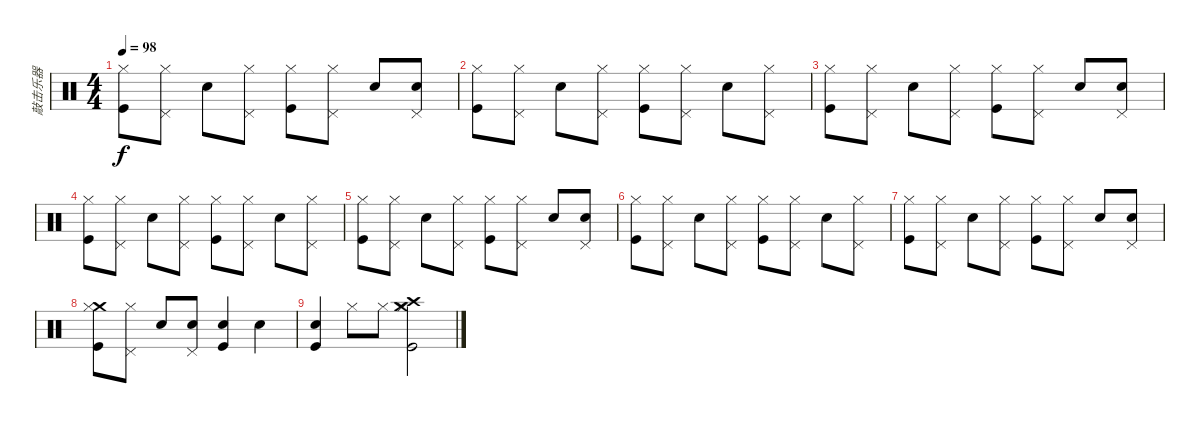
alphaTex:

\track ("敲击乐器" "敲击乐器") {instrument percussion}
\staff {score}
\articulation defaults
\ts (4 4)
\tempo 98
\clef neutral
\ks c
("Hi-Hat (closed)" "Kick (hit)").8{dy f} ("Pedal Hi-Hat (hit)" "Hi-Hat (closed)").8 "Snare (hit) 2".8 ("Pedal Hi-Hat (hit)" "Hi-Hat (closed)").8 ("Hi-Hat (closed)" "Kick (hit)").8 ("Pedal Hi-Hat (hit)" "Hi-Hat (closed)").8 "Snare (hit) 2".8 ("Pedal Hi-Hat (hit)" "Snare (hit) 2").8 |
("Hi-Hat (closed)" "Kick (hit)").8 ("Pedal Hi-Hat (hit)" "Hi-Hat (closed)").8 "Snare (hit) 2".8 ("Pedal Hi-Hat (hit)" "Hi-Hat (closed)").8 ("Hi-Hat (closed)" "Kick (hit)").8 ("Pedal Hi-Hat (hit)" "Hi-Hat (closed)").8 "Snare (hit) 2".8 ("Pedal Hi-Hat (hit)" "Hi-Hat (closed)").8 |
("Hi-Hat (closed)" "Kick (hit)").8 ("Pedal Hi-Hat (hit)" "Hi-Hat (closed)").8 "Snare (hit) 2".8 ("Pedal Hi-Hat (hit)" "Hi-Hat (closed)").8 ("Hi-Hat (closed)" "Kick (hit)").8 ("Pedal Hi-Hat (hit)" "Hi-Hat (closed)").8 "Snare (hit) 2".8 ("Pedal Hi-Hat (hit)" "Snare (hit) 2").8 |
("Hi-Hat (closed)" "Kick (hit)").8 ("Pedal Hi-Hat (hit)" "Hi-Hat (closed)").8 "Snare (hit) 2".8 ("Pedal Hi-Hat (hit)" "Hi-Hat (closed)").8 ("Hi-Hat (closed)" "Kick (hit)").8 ("Pedal Hi-Hat (hit)" "Hi-Hat (closed)").8 "Snare (hit) 2".8 ("Pedal Hi-Hat (hit)" "Hi-Hat (closed)").8 |
("Hi-Hat (closed)" "Kick (hit)").8 ("Pedal Hi-Hat (hit)" "Hi-Hat (closed)").8 "Snare (hit) 2".8 ("Pedal Hi-Hat (hit)" "Hi-Hat (closed)").8 ("Hi-Hat (closed)" "Kick (hit)").8 ("Pedal Hi-Hat (hit)" "Hi-Hat (closed)").8 "Snare (hit) 2".8 ("Pedal Hi-Hat (hit)" "Snare (hit) 2").8 |
("Hi-Hat (closed)" "Kick (hit)").8 ("Pedal Hi-Hat (hit)" "Hi-Hat (closed)").8 "Snare (hit) 2".8 ("Pedal Hi-Hat (hit)" "Hi-Hat (closed)").8 ("Hi-Hat (closed)" "Kick (hit)").8 ("Pedal Hi-Hat (hit)" "Hi-Hat (closed)").8 "Snare (hit) 2".8 ("Pedal Hi-Hat (hit)" "Hi-Hat (closed)").8 |
("Hi-Hat (closed)" "Kick (hit)").8 ("Pedal Hi-Hat (hit)" "Hi-Hat (closed)").8 "Snare (hit) 2".8 ("Pedal Hi-Hat (hit)" "Hi-Hat (closed)").8 ("Hi-Hat (closed)" "Kick (hit)").8 ("Pedal Hi-Hat (hit)" "Hi-Hat (closed)").8 "Snare (hit) 2".8 ("Pedal Hi-Hat (hit)" "Snare (hit) 2").8 |
("Crash medium (hit)" "Hi-Hat (closed)" "Kick (hit)").8 ("Pedal Hi-Hat (hit)" "Hi-Hat (closed)").8 "Snare (hit) 2".8 ("Pedal Hi-Hat (hit)" "Snare (hit) 2").8 ("Snare (hit) 2" "Kick (hit)").4 "Snare (hit) 2".4 |
("Snare (hit) 2" "Kick (hit)").4 "Hi-Hat (closed)".8 "Hi-Hat (closed)".8 ("Crash medium (hit)" "Crash high (hit)" "Hi-Hat (closed)" "Kick (hit)").2
